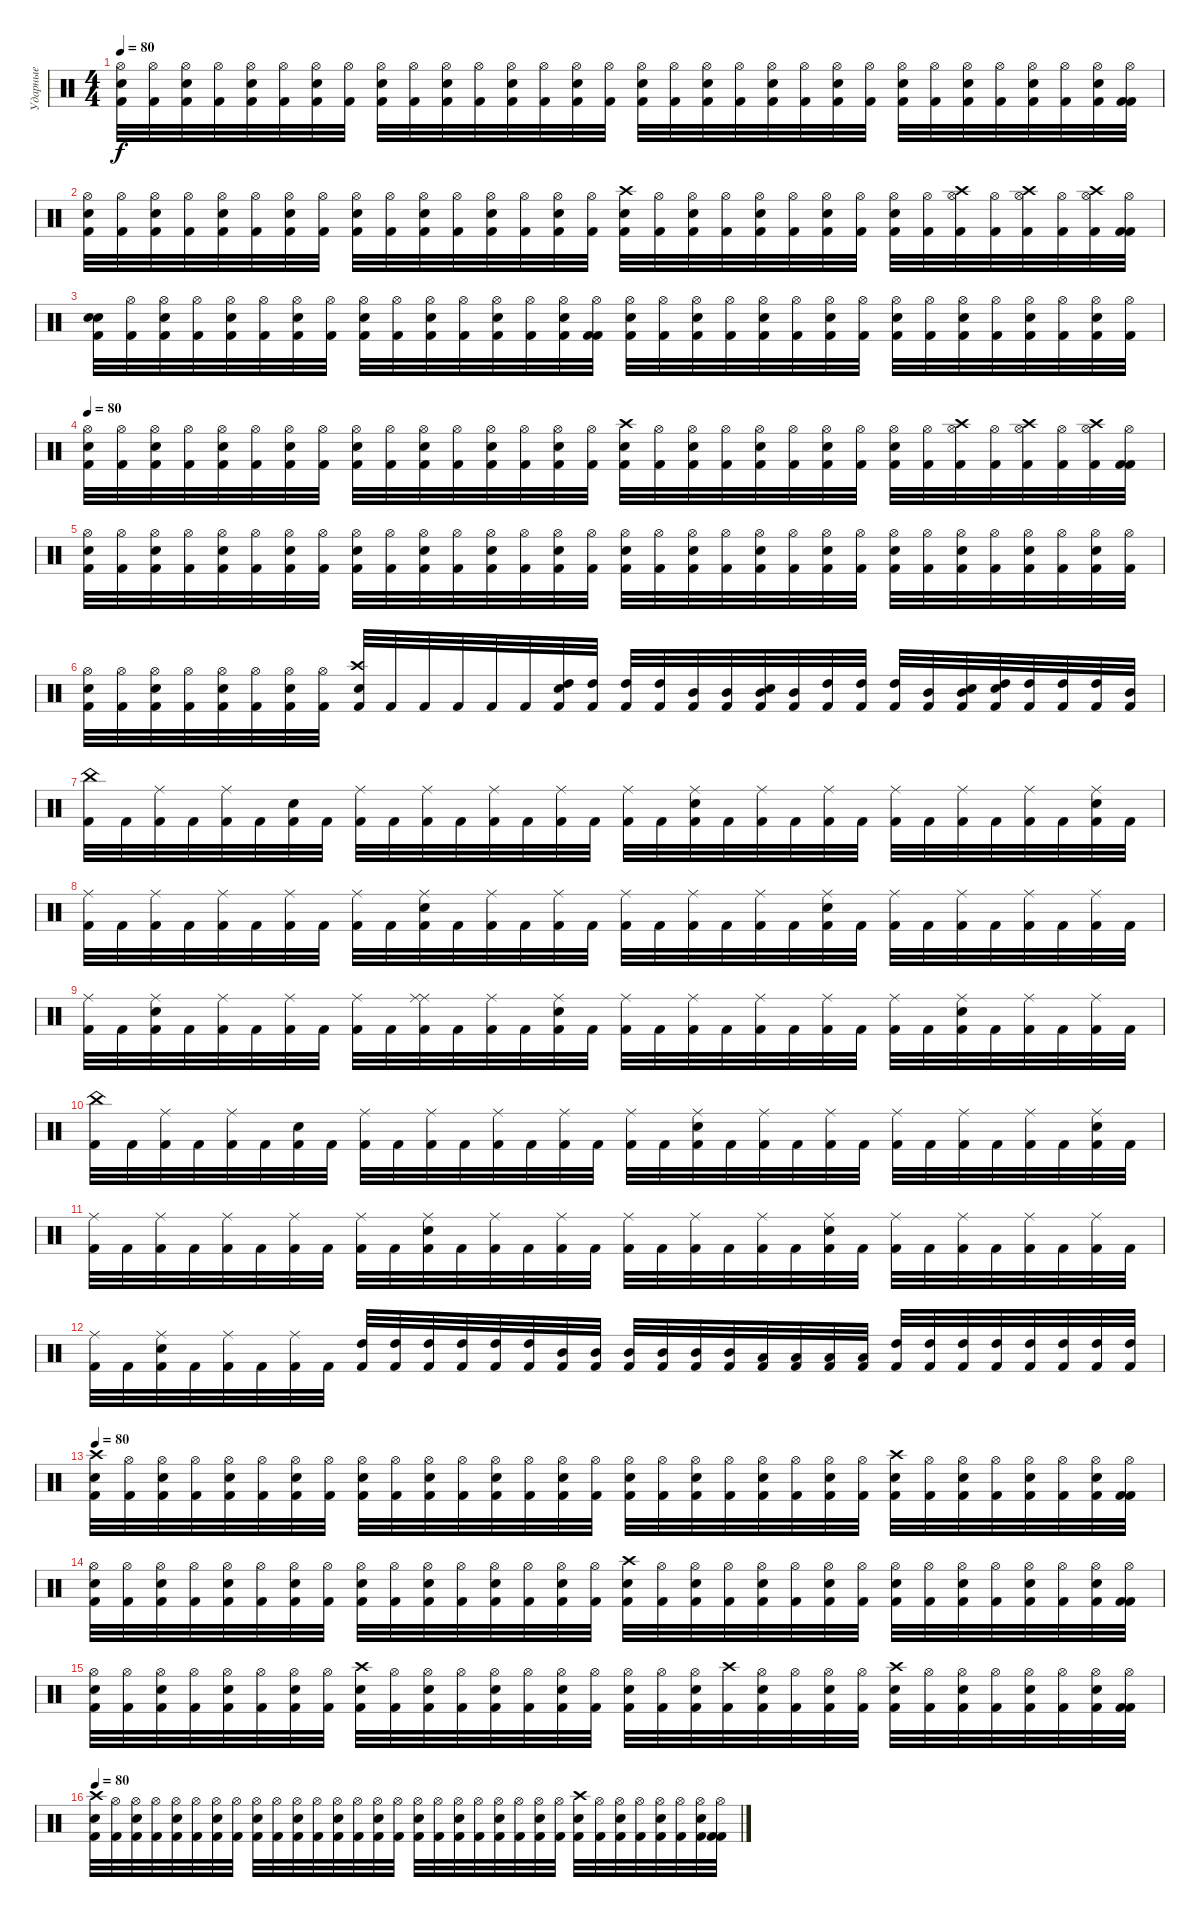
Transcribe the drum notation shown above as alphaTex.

\track ("Ударные" "Ударные") {instrument percussion}
\staff {score}
\articulation defaults
\ts (4 4)
\tempo 80
\clef neutral
\ks c
("Hi-Hat (open)" "Electric Snare (hit)" "Kick (hit) 2").32{dy f} ("Hi-Hat (open)" "Kick (hit) 2").32 ("Hi-Hat (open)" "Electric Snare (hit)" "Kick (hit) 2").32 ("Hi-Hat (open)" "Kick (hit) 2").32 ("Hi-Hat (open)" "Electric Snare (hit)" "Kick (hit) 2").32 ("Hi-Hat (open)" "Kick (hit) 2").32 ("Hi-Hat (open)" "Electric Snare (hit)" "Kick (hit) 2").32 ("Hi-Hat (open)" "Kick (hit) 2").32 ("Hi-Hat (open)" "Electric Snare (hit)" "Kick (hit) 2").32 ("Hi-Hat (open)" "Kick (hit) 2").32 ("Hi-Hat (open)" "Electric Snare (hit)" "Kick (hit) 2").32 ("Hi-Hat (open)" "Kick (hit) 2").32 ("Hi-Hat (open)" "Electric Snare (hit)" "Kick (hit) 2").32 ("Hi-Hat (open)" "Kick (hit) 2").32 ("Hi-Hat (open)" "Electric Snare (hit)" "Kick (hit) 2").32 ("Hi-Hat (open)" "Kick (hit) 2").32 ("Hi-Hat (open)" "Electric Snare (hit)" "Kick (hit) 2").32 ("Hi-Hat (open)" "Kick (hit) 2").32 ("Hi-Hat (open)" "Electric Snare (hit)" "Kick (hit) 2").32 ("Hi-Hat (open)" "Kick (hit) 2").32 ("Hi-Hat (open)" "Electric Snare (hit)" "Kick (hit) 2").32 ("Hi-Hat (open)" "Kick (hit) 2").32 ("Hi-Hat (open)" "Electric Snare (hit)" "Kick (hit) 2").32 ("Hi-Hat (open)" "Kick (hit) 2").32 ("Hi-Hat (open)" "Electric Snare (hit)" "Kick (hit) 2").32 ("Hi-Hat (open)" "Kick (hit) 2").32 ("Hi-Hat (open)" "Electric Snare (hit)" "Kick (hit) 2").32 ("Hi-Hat (open)" "Kick (hit) 2").32 ("Hi-Hat (open)" "Electric Snare (hit)" "Kick (hit) 2").32 ("Hi-Hat (open)" "Kick (hit) 2").32 ("Hi-Hat (open)" "Electric Snare (hit)" "Kick (hit) 2").32 ("Hi-Hat (open)" "Kick (hit) 2" "Kick (hit) 2").32 |
("Hi-Hat (open)" "Electric Snare (hit)" "Kick (hit) 2").32 ("Hi-Hat (open)" "Kick (hit) 2").32 ("Hi-Hat (open)" "Electric Snare (hit)" "Kick (hit) 2").32 ("Hi-Hat (open)" "Kick (hit) 2").32 ("Hi-Hat (open)" "Electric Snare (hit)" "Kick (hit) 2").32 ("Hi-Hat (open)" "Kick (hit) 2").32 ("Hi-Hat (open)" "Electric Snare (hit)" "Kick (hit) 2").32 ("Hi-Hat (open)" "Kick (hit) 2").32 ("Hi-Hat (open)" "Electric Snare (hit)" "Kick (hit) 2").32 ("Hi-Hat (open)" "Kick (hit) 2").32 ("Hi-Hat (open)" "Electric Snare (hit)" "Kick (hit) 2").32 ("Hi-Hat (open)" "Kick (hit) 2").32 ("Hi-Hat (open)" "Electric Snare (hit)" "Kick (hit) 2").32 ("Hi-Hat (open)" "Kick (hit) 2").32 ("Hi-Hat (open)" "Electric Snare (hit)" "Kick (hit) 2").32 ("Hi-Hat (open)" "Kick (hit) 2").32 ("Crash high (hit)" "Electric Snare (hit)" "Kick (hit) 2").32 ("Hi-Hat (open)" "Kick (hit) 2").32 ("Hi-Hat (open)" "Electric Snare (hit)" "Kick (hit) 2").32 ("Hi-Hat (open)" "Kick (hit) 2").32 ("Hi-Hat (open)" "Electric Snare (hit)" "Kick (hit) 2").32 ("Hi-Hat (open)" "Kick (hit) 2").32 ("Hi-Hat (open)" "Electric Snare (hit)" "Kick (hit) 2").32 ("Hi-Hat (open)" "Kick (hit) 2").32 ("Hi-Hat (open)" "Electric Snare (hit)" "Kick (hit) 2").32 ("Hi-Hat (open)" "Kick (hit) 2").32 ("Hi-Hat (open)" "Crash high (hit)" "Kick (hit) 2").32 ("Hi-Hat (open)" "Kick (hit) 2").32 ("Hi-Hat (open)" "Crash high (hit)" "Kick (hit) 2").32 ("Hi-Hat (open)" "Kick (hit) 2").32 ("Hi-Hat (open)" "Crash high (hit)" "Kick (hit) 2").32 ("Hi-Hat (open)" "Kick (hit) 2" "Kick (hit) 2").32 |
("Electric Snare (hit)" "Electric Snare (hit)" "Kick (hit) 2").32 ("Hi-Hat (open)" "Kick (hit) 2").32 ("Hi-Hat (open)" "Electric Snare (hit)" "Kick (hit) 2").32 ("Hi-Hat (open)" "Kick (hit) 2").32 ("Hi-Hat (open)" "Electric Snare (hit)" "Kick (hit) 2").32 ("Hi-Hat (open)" "Kick (hit) 2").32 ("Hi-Hat (open)" "Electric Snare (hit)" "Kick (hit) 2").32 ("Hi-Hat (open)" "Kick (hit) 2").32 ("Hi-Hat (open)" "Electric Snare (hit)" "Kick (hit) 2").32 ("Hi-Hat (open)" "Kick (hit) 2").32 ("Hi-Hat (open)" "Electric Snare (hit)" "Kick (hit) 2").32 ("Hi-Hat (open)" "Kick (hit) 2").32 ("Hi-Hat (open)" "Electric Snare (hit)" "Kick (hit) 2").32 ("Hi-Hat (open)" "Kick (hit) 2").32 ("Hi-Hat (open)" "Electric Snare (hit)" "Kick (hit) 2").32 ("Hi-Hat (open)" "Kick (hit) 2" "Kick (hit) 2").32 ("Hi-Hat (open)" "Electric Snare (hit)" "Kick (hit) 2").32 ("Hi-Hat (open)" "Kick (hit) 2").32 ("Hi-Hat (open)" "Electric Snare (hit)" "Kick (hit) 2").32 ("Hi-Hat (open)" "Kick (hit) 2").32 ("Hi-Hat (open)" "Electric Snare (hit)" "Kick (hit) 2").32 ("Hi-Hat (open)" "Kick (hit) 2").32 ("Hi-Hat (open)" "Electric Snare (hit)" "Kick (hit) 2").32 ("Hi-Hat (open)" "Kick (hit) 2").32 ("Hi-Hat (open)" "Electric Snare (hit)" "Kick (hit) 2").32 ("Hi-Hat (open)" "Kick (hit) 2").32 ("Hi-Hat (open)" "Electric Snare (hit)" "Kick (hit) 2").32 ("Hi-Hat (open)" "Kick (hit) 2").32 ("Hi-Hat (open)" "Electric Snare (hit)" "Kick (hit) 2").32 ("Hi-Hat (open)" "Kick (hit) 2").32 ("Hi-Hat (open)" "Electric Snare (hit)" "Kick (hit) 2").32 ("Hi-Hat (open)" "Kick (hit) 2").32 |
\tempo 80
("Hi-Hat (open)" "Electric Snare (hit)" "Kick (hit) 2").32 ("Hi-Hat (open)" "Kick (hit) 2").32 ("Hi-Hat (open)" "Electric Snare (hit)" "Kick (hit) 2").32 ("Hi-Hat (open)" "Kick (hit) 2").32 ("Hi-Hat (open)" "Electric Snare (hit)" "Kick (hit) 2").32 ("Hi-Hat (open)" "Kick (hit) 2").32 ("Hi-Hat (open)" "Electric Snare (hit)" "Kick (hit) 2").32 ("Hi-Hat (open)" "Kick (hit) 2").32 ("Hi-Hat (open)" "Electric Snare (hit)" "Kick (hit) 2").32 ("Hi-Hat (open)" "Kick (hit) 2").32 ("Hi-Hat (open)" "Electric Snare (hit)" "Kick (hit) 2").32 ("Hi-Hat (open)" "Kick (hit) 2").32 ("Hi-Hat (open)" "Electric Snare (hit)" "Kick (hit) 2").32 ("Hi-Hat (open)" "Kick (hit) 2").32 ("Hi-Hat (open)" "Electric Snare (hit)" "Kick (hit) 2").32 ("Hi-Hat (open)" "Kick (hit) 2").32 ("Crash high (hit)" "Electric Snare (hit)" "Kick (hit) 2").32 ("Hi-Hat (open)" "Kick (hit) 2").32 ("Hi-Hat (open)" "Electric Snare (hit)" "Kick (hit) 2").32 ("Hi-Hat (open)" "Kick (hit) 2").32 ("Hi-Hat (open)" "Electric Snare (hit)" "Kick (hit) 2").32 ("Hi-Hat (open)" "Kick (hit) 2").32 ("Hi-Hat (open)" "Electric Snare (hit)" "Kick (hit) 2").32 ("Hi-Hat (open)" "Kick (hit) 2").32 ("Hi-Hat (open)" "Electric Snare (hit)" "Kick (hit) 2").32 ("Hi-Hat (open)" "Kick (hit) 2").32 ("Hi-Hat (open)" "Crash high (hit)" "Kick (hit) 2").32 ("Hi-Hat (open)" "Kick (hit) 2").32 ("Hi-Hat (open)" "Crash high (hit)" "Kick (hit) 2").32 ("Hi-Hat (open)" "Kick (hit) 2").32 ("Hi-Hat (open)" "Crash high (hit)" "Kick (hit) 2").32 ("Hi-Hat (open)" "Kick (hit) 2" "Kick (hit) 2").32 |
("Hi-Hat (open)" "Electric Snare (hit)" "Kick (hit) 2").32 ("Hi-Hat (open)" "Kick (hit) 2").32 ("Hi-Hat (open)" "Electric Snare (hit)" "Kick (hit) 2").32 ("Hi-Hat (open)" "Kick (hit) 2").32 ("Hi-Hat (open)" "Electric Snare (hit)" "Kick (hit) 2").32 ("Hi-Hat (open)" "Kick (hit) 2").32 ("Hi-Hat (open)" "Electric Snare (hit)" "Kick (hit) 2").32 ("Hi-Hat (open)" "Kick (hit) 2").32 ("Hi-Hat (open)" "Electric Snare (hit)" "Kick (hit) 2").32 ("Hi-Hat (open)" "Kick (hit) 2").32 ("Hi-Hat (open)" "Electric Snare (hit)" "Kick (hit) 2").32 ("Hi-Hat (open)" "Kick (hit) 2").32 ("Hi-Hat (open)" "Electric Snare (hit)" "Kick (hit) 2").32 ("Hi-Hat (open)" "Kick (hit) 2").32 ("Hi-Hat (open)" "Electric Snare (hit)" "Kick (hit) 2").32 ("Hi-Hat (open)" "Kick (hit) 2").32 ("Hi-Hat (open)" "Electric Snare (hit)" "Kick (hit) 2").32 ("Hi-Hat (open)" "Kick (hit) 2").32 ("Hi-Hat (open)" "Electric Snare (hit)" "Kick (hit) 2").32 ("Hi-Hat (open)" "Kick (hit) 2").32 ("Hi-Hat (open)" "Electric Snare (hit)" "Kick (hit) 2").32 ("Hi-Hat (open)" "Kick (hit) 2").32 ("Hi-Hat (open)" "Electric Snare (hit)" "Kick (hit) 2").32 ("Hi-Hat (open)" "Kick (hit) 2").32 ("Hi-Hat (open)" "Electric Snare (hit)" "Kick (hit) 2").32 ("Hi-Hat (open)" "Kick (hit) 2").32 ("Hi-Hat (open)" "Electric Snare (hit)" "Kick (hit) 2").32 ("Hi-Hat (open)" "Kick (hit) 2").32 ("Hi-Hat (open)" "Electric Snare (hit)" "Kick (hit) 2").32 ("Hi-Hat (open)" "Kick (hit) 2").32 ("Hi-Hat (open)" "Electric Snare (hit)" "Kick (hit) 2").32 ("Hi-Hat (open)" "Kick (hit) 2").32 |
("Hi-Hat (open)" "Electric Snare (hit)" "Kick (hit) 2").32 ("Hi-Hat (open)" "Kick (hit) 2").32 ("Hi-Hat (open)" "Electric Snare (hit)" "Kick (hit) 2").32 ("Hi-Hat (open)" "Kick (hit) 2").32 ("Hi-Hat (open)" "Electric Snare (hit)" "Kick (hit) 2").32 ("Hi-Hat (open)" "Kick (hit) 2").32 ("Hi-Hat (open)" "Electric Snare (hit)" "Kick (hit) 2").32 ("Hi-Hat (open)" "Kick (hit) 2").32 ("Kick (hit) 2" "Snare (hit) 2" "Crash high (hit)").32 "Kick (hit) 2".32 "Kick (hit) 2".32 "Kick (hit) 2".32 "Kick (hit) 2".32 "Kick (hit) 2".32 ("Kick (hit) 2" "High Tom (hit)" "Snare (hit) 2").32 ("Kick (hit) 2" "High Tom (hit)").32 ("Kick (hit) 2" "High Tom (hit)").32 ("Kick (hit) 2" "High Tom (hit)").32 ("Kick (hit) 2" "Mid Tom (hit)").32 ("Kick (hit) 2" "Mid Tom (hit)").32 ("Kick (hit) 2" "Mid Tom (hit)" "Snare (hit) 2").32 ("Kick (hit) 2" "Mid Tom (hit)").32 ("Kick (hit) 2" "High Tom (hit)").32 ("Kick (hit) 2" "High Tom (hit)").32 ("Kick (hit) 2" "High Tom (hit)").32 ("Kick (hit) 2" "Mid Tom (hit)").32 ("Kick (hit) 2" "Mid Tom (hit)" "Snare (hit) 2").32 ("Kick (hit) 2" "High Tom (hit)" "Snare (hit) 2").32 ("Kick (hit) 2" "High Tom (hit)").32 ("Kick (hit) 2" "High Tom (hit)").32 ("Kick (hit) 2" "High Tom (hit)").32 ("Kick (hit) 2" "Mid Tom (hit)").32 |
("China (hit)" "Kick (hit) 2").32 "Kick (hit) 2".32 ("Ride (middle)" "Kick (hit) 2").32 "Kick (hit) 2".32 ("Ride (middle)" "Kick (hit) 2").32 "Kick (hit) 2".32 ("Snare (hit) 2" "Kick (hit) 2").32 "Kick (hit) 2".32 ("Ride (middle)" "Kick (hit) 2").32 "Kick (hit) 2".32 ("Ride (middle)" "Kick (hit) 2").32 "Kick (hit) 2".32 ("Ride (middle)" "Kick (hit) 2").32 "Kick (hit) 2".32 ("Ride (middle)" "Kick (hit) 2").32 "Kick (hit) 2".32 ("Ride (middle)" "Kick (hit) 2").32 "Kick (hit) 2".32 ("Snare (hit) 2" "Ride (middle)" "Kick (hit) 2").32 "Kick (hit) 2".32 ("Ride (middle)" "Kick (hit) 2").32 "Kick (hit) 2".32 ("Ride (middle)" "Kick (hit) 2").32 "Kick (hit) 2".32 ("Ride (middle)" "Kick (hit) 2").32 "Kick (hit) 2".32 ("Ride (middle)" "Kick (hit) 2").32 "Kick (hit) 2".32 ("Ride (middle)" "Kick (hit) 2").32 "Kick (hit) 2".32 ("Snare (hit) 2" "Ride (middle)" "Kick (hit) 2").32 "Kick (hit) 2".32 |
("Ride (middle)" "Kick (hit) 2").32 "Kick (hit) 2".32 ("Ride (middle)" "Kick (hit) 2").32 "Kick (hit) 2".32 ("Ride (middle)" "Kick (hit) 2").32 "Kick (hit) 2".32 ("Ride (middle)" "Kick (hit) 2").32 "Kick (hit) 2".32 ("Ride (middle)" "Kick (hit) 2").32 "Kick (hit) 2".32 ("Snare (hit) 2" "Ride (middle)" "Kick (hit) 2").32 "Kick (hit) 2".32 ("Ride (middle)" "Kick (hit) 2").32 "Kick (hit) 2".32 ("Ride (middle)" "Kick (hit) 2").32 "Kick (hit) 2".32 ("Ride (middle)" "Kick (hit) 2").32 "Kick (hit) 2".32 ("Ride (middle)" "Kick (hit) 2").32 "Kick (hit) 2".32 ("Ride (middle)" "Kick (hit) 2").32 "Kick (hit) 2".32 ("Snare (hit) 2" "Ride (middle)" "Kick (hit) 2").32 "Kick (hit) 2".32 ("Ride (middle)" "Kick (hit) 2").32 "Kick (hit) 2".32 ("Ride (middle)" "Kick (hit) 2").32 "Kick (hit) 2".32 ("Ride (middle)" "Kick (hit) 2").32 "Kick (hit) 2".32 ("Ride (middle)" "Kick (hit) 2").32 "Kick (hit) 2".32 |
("Ride (middle)" "Kick (hit) 2").32 "Kick (hit) 2".32 ("Ride (middle)" "Snare (hit) 2" "Kick (hit) 2").32 "Kick (hit) 2".32 ("Ride (middle)" "Kick (hit) 2").32 "Kick (hit) 2".32 ("Ride (middle)" "Kick (hit) 2").32 "Kick (hit) 2".32 ("Ride (middle)" "Kick (hit) 2").32 "Kick (hit) 2".32 ("Ride (middle)" "Ride (middle)" "Kick (hit) 2").32 "Kick (hit) 2".32 ("Ride (middle)" "Kick (hit) 2").32 "Kick (hit) 2".32 ("Ride (middle)" "Snare (hit) 2" "Kick (hit) 2").32 "Kick (hit) 2".32 ("Ride (middle)" "Kick (hit) 2").32 "Kick (hit) 2".32 ("Ride (middle)" "Kick (hit) 2").32 "Kick (hit) 2".32 ("Ride (middle)" "Kick (hit) 2").32 "Kick (hit) 2".32 ("Ride (middle)" "Kick (hit) 2").32 "Kick (hit) 2".32 ("Ride (middle)" "Kick (hit) 2").32 "Kick (hit) 2".32 ("Ride (middle)" "Snare (hit) 2" "Kick (hit) 2").32 "Kick (hit) 2".32 ("Ride (middle)" "Kick (hit) 2").32 "Kick (hit) 2".32 ("Ride (middle)" "Kick (hit) 2").32 "Kick (hit) 2".32 |
("China (hit)" "Kick (hit) 2").32 "Kick (hit) 2".32 ("Ride (middle)" "Kick (hit) 2").32 "Kick (hit) 2".32 ("Ride (middle)" "Kick (hit) 2").32 "Kick (hit) 2".32 ("Snare (hit) 2" "Kick (hit) 2").32 "Kick (hit) 2".32 ("Ride (middle)" "Kick (hit) 2").32 "Kick (hit) 2".32 ("Ride (middle)" "Kick (hit) 2").32 "Kick (hit) 2".32 ("Ride (middle)" "Kick (hit) 2").32 "Kick (hit) 2".32 ("Ride (middle)" "Kick (hit) 2").32 "Kick (hit) 2".32 ("Ride (middle)" "Kick (hit) 2").32 "Kick (hit) 2".32 ("Snare (hit) 2" "Ride (middle)" "Kick (hit) 2").32 "Kick (hit) 2".32 ("Ride (middle)" "Kick (hit) 2").32 "Kick (hit) 2".32 ("Ride (middle)" "Kick (hit) 2").32 "Kick (hit) 2".32 ("Ride (middle)" "Kick (hit) 2").32 "Kick (hit) 2".32 ("Ride (middle)" "Kick (hit) 2").32 "Kick (hit) 2".32 ("Ride (middle)" "Kick (hit) 2").32 "Kick (hit) 2".32 ("Snare (hit) 2" "Ride (middle)" "Kick (hit) 2").32 "Kick (hit) 2".32 |
("Ride (middle)" "Kick (hit) 2").32 "Kick (hit) 2".32 ("Ride (middle)" "Kick (hit) 2").32 "Kick (hit) 2".32 ("Ride (middle)" "Kick (hit) 2").32 "Kick (hit) 2".32 ("Ride (middle)" "Kick (hit) 2").32 "Kick (hit) 2".32 ("Ride (middle)" "Kick (hit) 2").32 "Kick (hit) 2".32 ("Snare (hit) 2" "Ride (middle)" "Kick (hit) 2").32 "Kick (hit) 2".32 ("Ride (middle)" "Kick (hit) 2").32 "Kick (hit) 2".32 ("Ride (middle)" "Kick (hit) 2").32 "Kick (hit) 2".32 ("Ride (middle)" "Kick (hit) 2").32 "Kick (hit) 2".32 ("Ride (middle)" "Kick (hit) 2").32 "Kick (hit) 2".32 ("Ride (middle)" "Kick (hit) 2").32 "Kick (hit) 2".32 ("Snare (hit) 2" "Ride (middle)" "Kick (hit) 2").32 "Kick (hit) 2".32 ("Ride (middle)" "Kick (hit) 2").32 "Kick (hit) 2".32 ("Ride (middle)" "Kick (hit) 2").32 "Kick (hit) 2".32 ("Ride (middle)" "Kick (hit) 2").32 "Kick (hit) 2".32 ("Ride (middle)" "Kick (hit) 2").32 "Kick (hit) 2".32 |
("Ride (middle)" "Kick (hit) 2").32 "Kick (hit) 2".32 ("Ride (middle)" "Snare (hit) 2" "Kick (hit) 2").32 "Kick (hit) 2".32 ("Ride (middle)" "Kick (hit) 2").32 "Kick (hit) 2".32 ("Ride (middle)" "Kick (hit) 2").32 "Kick (hit) 2".32 ("High Tom (hit)" "Kick (hit) 2").32 ("High Tom (hit)" "Kick (hit) 2").32 ("High Tom (hit)" "Kick (hit) 2").32 ("High Tom (hit)" "Kick (hit) 2").32 ("High Tom (hit)" "Kick (hit) 2").32 ("High Tom (hit)" "Kick (hit) 2").32 ("Mid Tom (hit)" "Kick (hit) 2").32 ("Mid Tom (hit)" "Kick (hit) 2").32 ("Mid Tom (hit)" "Kick (hit) 2").32 ("Mid Tom (hit)" "Kick (hit) 2").32 ("Mid Tom (hit)" "Kick (hit) 2").32 ("Mid Tom (hit)" "Kick (hit) 2").32 ("Low Tom (hit)" "Kick (hit) 2").32 ("Low Tom (hit)" "Kick (hit) 2").32 ("Low Tom (hit)" "Kick (hit) 2").32 ("Low Tom (hit)" "Kick (hit) 2").32 ("High Tom (hit)" "Kick (hit) 2").32 ("High Tom (hit)" "Kick (hit) 2").32 ("High Tom (hit)" "Kick (hit) 2").32 ("High Tom (hit)" "Kick (hit) 2").32 ("High Tom (hit)" "Kick (hit) 2").32 ("High Tom (hit)" "Kick (hit) 2").32 ("High Tom (hit)" "Kick (hit) 2").32 ("High Tom (hit)" "Kick (hit) 2").32 |
\tempo 80
("Crash high (hit)" "Electric Snare (hit)" "Kick (hit) 2").32 ("Hi-Hat (open)" "Kick (hit) 2").32 ("Hi-Hat (open)" "Electric Snare (hit)" "Kick (hit) 2").32 ("Hi-Hat (open)" "Kick (hit) 2").32 ("Hi-Hat (open)" "Electric Snare (hit)" "Kick (hit) 2").32 ("Hi-Hat (open)" "Kick (hit) 2").32 ("Hi-Hat (open)" "Electric Snare (hit)" "Kick (hit) 2").32 ("Hi-Hat (open)" "Kick (hit) 2").32 ("Hi-Hat (open)" "Electric Snare (hit)" "Kick (hit) 2").32 ("Hi-Hat (open)" "Kick (hit) 2").32 ("Hi-Hat (open)" "Electric Snare (hit)" "Kick (hit) 2").32 ("Hi-Hat (open)" "Kick (hit) 2").32 ("Hi-Hat (open)" "Electric Snare (hit)" "Kick (hit) 2").32 ("Hi-Hat (open)" "Kick (hit) 2").32 ("Hi-Hat (open)" "Electric Snare (hit)" "Kick (hit) 2").32 ("Hi-Hat (open)" "Kick (hit) 2").32 ("Hi-Hat (open)" "Electric Snare (hit)" "Kick (hit) 2").32 ("Hi-Hat (open)" "Kick (hit) 2").32 ("Hi-Hat (open)" "Electric Snare (hit)" "Kick (hit) 2").32 ("Hi-Hat (open)" "Kick (hit) 2").32 ("Hi-Hat (open)" "Electric Snare (hit)" "Kick (hit) 2").32 ("Hi-Hat (open)" "Kick (hit) 2").32 ("Hi-Hat (open)" "Electric Snare (hit)" "Kick (hit) 2").32 ("Hi-Hat (open)" "Kick (hit) 2").32 ("Crash high (hit)" "Electric Snare (hit)" "Kick (hit) 2").32 ("Hi-Hat (open)" "Kick (hit) 2").32 ("Hi-Hat (open)" "Electric Snare (hit)" "Kick (hit) 2").32 ("Hi-Hat (open)" "Kick (hit) 2").32 ("Hi-Hat (open)" "Electric Snare (hit)" "Kick (hit) 2").32 ("Hi-Hat (open)" "Kick (hit) 2").32 ("Hi-Hat (open)" "Electric Snare (hit)" "Kick (hit) 2").32 ("Hi-Hat (open)" "Kick (hit) 2" "Kick (hit) 2").32 |
("Hi-Hat (open)" "Electric Snare (hit)" "Kick (hit) 2").32 ("Hi-Hat (open)" "Kick (hit) 2").32 ("Hi-Hat (open)" "Electric Snare (hit)" "Kick (hit) 2").32 ("Hi-Hat (open)" "Kick (hit) 2").32 ("Hi-Hat (open)" "Electric Snare (hit)" "Kick (hit) 2").32 ("Hi-Hat (open)" "Kick (hit) 2").32 ("Hi-Hat (open)" "Electric Snare (hit)" "Kick (hit) 2").32 ("Hi-Hat (open)" "Kick (hit) 2").32 ("Hi-Hat (open)" "Electric Snare (hit)" "Kick (hit) 2").32 ("Hi-Hat (open)" "Kick (hit) 2").32 ("Hi-Hat (open)" "Electric Snare (hit)" "Kick (hit) 2").32 ("Hi-Hat (open)" "Kick (hit) 2").32 ("Hi-Hat (open)" "Electric Snare (hit)" "Kick (hit) 2").32 ("Hi-Hat (open)" "Kick (hit) 2").32 ("Hi-Hat (open)" "Electric Snare (hit)" "Kick (hit) 2").32 ("Hi-Hat (open)" "Kick (hit) 2").32 ("Crash high (hit)" "Electric Snare (hit)" "Kick (hit) 2").32 ("Hi-Hat (open)" "Kick (hit) 2").32 ("Hi-Hat (open)" "Electric Snare (hit)" "Kick (hit) 2").32 ("Hi-Hat (open)" "Kick (hit) 2").32 ("Hi-Hat (open)" "Electric Snare (hit)" "Kick (hit) 2").32 ("Hi-Hat (open)" "Kick (hit) 2").32 ("Hi-Hat (open)" "Electric Snare (hit)" "Kick (hit) 2").32 ("Hi-Hat (open)" "Kick (hit) 2").32 ("Hi-Hat (open)" "Electric Snare (hit)" "Kick (hit) 2").32 ("Hi-Hat (open)" "Kick (hit) 2").32 ("Hi-Hat (open)" "Electric Snare (hit)" "Kick (hit) 2").32 ("Hi-Hat (open)" "Kick (hit) 2").32 ("Hi-Hat (open)" "Electric Snare (hit)" "Kick (hit) 2").32 ("Hi-Hat (open)" "Kick (hit) 2").32 ("Hi-Hat (open)" "Electric Snare (hit)" "Kick (hit) 2").32 ("Hi-Hat (open)" "Kick (hit) 2" "Kick (hit) 2").32 |
("Hi-Hat (open)" "Electric Snare (hit)" "Kick (hit) 2").32 ("Hi-Hat (open)" "Kick (hit) 2").32 ("Hi-Hat (open)" "Electric Snare (hit)" "Kick (hit) 2").32 ("Hi-Hat (open)" "Kick (hit) 2").32 ("Hi-Hat (open)" "Electric Snare (hit)" "Kick (hit) 2").32 ("Hi-Hat (open)" "Kick (hit) 2").32 ("Hi-Hat (open)" "Electric Snare (hit)" "Kick (hit) 2").32 ("Hi-Hat (open)" "Kick (hit) 2").32 ("Crash high (hit)" "Electric Snare (hit)" "Kick (hit) 2").32 ("Hi-Hat (open)" "Kick (hit) 2").32 ("Hi-Hat (open)" "Electric Snare (hit)" "Kick (hit) 2").32 ("Hi-Hat (open)" "Kick (hit) 2").32 ("Hi-Hat (open)" "Electric Snare (hit)" "Kick (hit) 2").32 ("Hi-Hat (open)" "Kick (hit) 2").32 ("Hi-Hat (open)" "Electric Snare (hit)" "Kick (hit) 2").32 ("Hi-Hat (open)" "Kick (hit) 2").32 ("Hi-Hat (open)" "Electric Snare (hit)" "Kick (hit) 2").32 ("Hi-Hat (open)" "Kick (hit) 2").32 ("Hi-Hat (open)" "Electric Snare (hit)" "Kick (hit) 2").32 ("Crash high (hit)" "Kick (hit) 2").32 ("Hi-Hat (open)" "Electric Snare (hit)" "Kick (hit) 2").32 ("Hi-Hat (open)" "Kick (hit) 2").32 ("Hi-Hat (open)" "Electric Snare (hit)" "Kick (hit) 2").32 ("Hi-Hat (open)" "Kick (hit) 2").32 ("Crash high (hit)" "Electric Snare (hit)" "Kick (hit) 2").32 ("Hi-Hat (open)" "Kick (hit) 2").32 ("Hi-Hat (open)" "Electric Snare (hit)" "Kick (hit) 2").32 ("Hi-Hat (open)" "Kick (hit) 2").32 ("Hi-Hat (open)" "Electric Snare (hit)" "Kick (hit) 2").32 ("Hi-Hat (open)" "Kick (hit) 2").32 ("Hi-Hat (open)" "Electric Snare (hit)" "Kick (hit) 2").32 ("Hi-Hat (open)" "Kick (hit) 2" "Kick (hit) 2").32 |
\tempo 80
("Crash high (hit)" "Electric Snare (hit)" "Kick (hit) 2").32 ("Hi-Hat (open)" "Kick (hit) 2").32 ("Hi-Hat (open)" "Electric Snare (hit)" "Kick (hit) 2").32 ("Hi-Hat (open)" "Kick (hit) 2").32 ("Hi-Hat (open)" "Electric Snare (hit)" "Kick (hit) 2").32 ("Hi-Hat (open)" "Kick (hit) 2").32 ("Hi-Hat (open)" "Electric Snare (hit)" "Kick (hit) 2").32 ("Hi-Hat (open)" "Kick (hit) 2").32 ("Hi-Hat (open)" "Electric Snare (hit)" "Kick (hit) 2").32 ("Hi-Hat (open)" "Kick (hit) 2").32 ("Hi-Hat (open)" "Electric Snare (hit)" "Kick (hit) 2").32 ("Hi-Hat (open)" "Kick (hit) 2").32 ("Hi-Hat (open)" "Electric Snare (hit)" "Kick (hit) 2").32 ("Hi-Hat (open)" "Kick (hit) 2").32 ("Hi-Hat (open)" "Electric Snare (hit)" "Kick (hit) 2").32 ("Hi-Hat (open)" "Kick (hit) 2").32 ("Hi-Hat (open)" "Electric Snare (hit)" "Kick (hit) 2").32 ("Hi-Hat (open)" "Kick (hit) 2").32 ("Hi-Hat (open)" "Electric Snare (hit)" "Kick (hit) 2").32 ("Hi-Hat (open)" "Kick (hit) 2").32 ("Hi-Hat (open)" "Electric Snare (hit)" "Kick (hit) 2").32 ("Hi-Hat (open)" "Kick (hit) 2").32 ("Hi-Hat (open)" "Electric Snare (hit)" "Kick (hit) 2").32 ("Hi-Hat (open)" "Kick (hit) 2").32 ("Crash high (hit)" "Electric Snare (hit)" "Kick (hit) 2").32 ("Hi-Hat (open)" "Kick (hit) 2").32 ("Hi-Hat (open)" "Electric Snare (hit)" "Kick (hit) 2").32 ("Hi-Hat (open)" "Kick (hit) 2").32 ("Hi-Hat (open)" "Electric Snare (hit)" "Kick (hit) 2").32 ("Hi-Hat (open)" "Kick (hit) 2").32 ("Hi-Hat (open)" "Electric Snare (hit)" "Kick (hit) 2").32 ("Hi-Hat (open)" "Kick (hit) 2" "Kick (hit) 2").32
